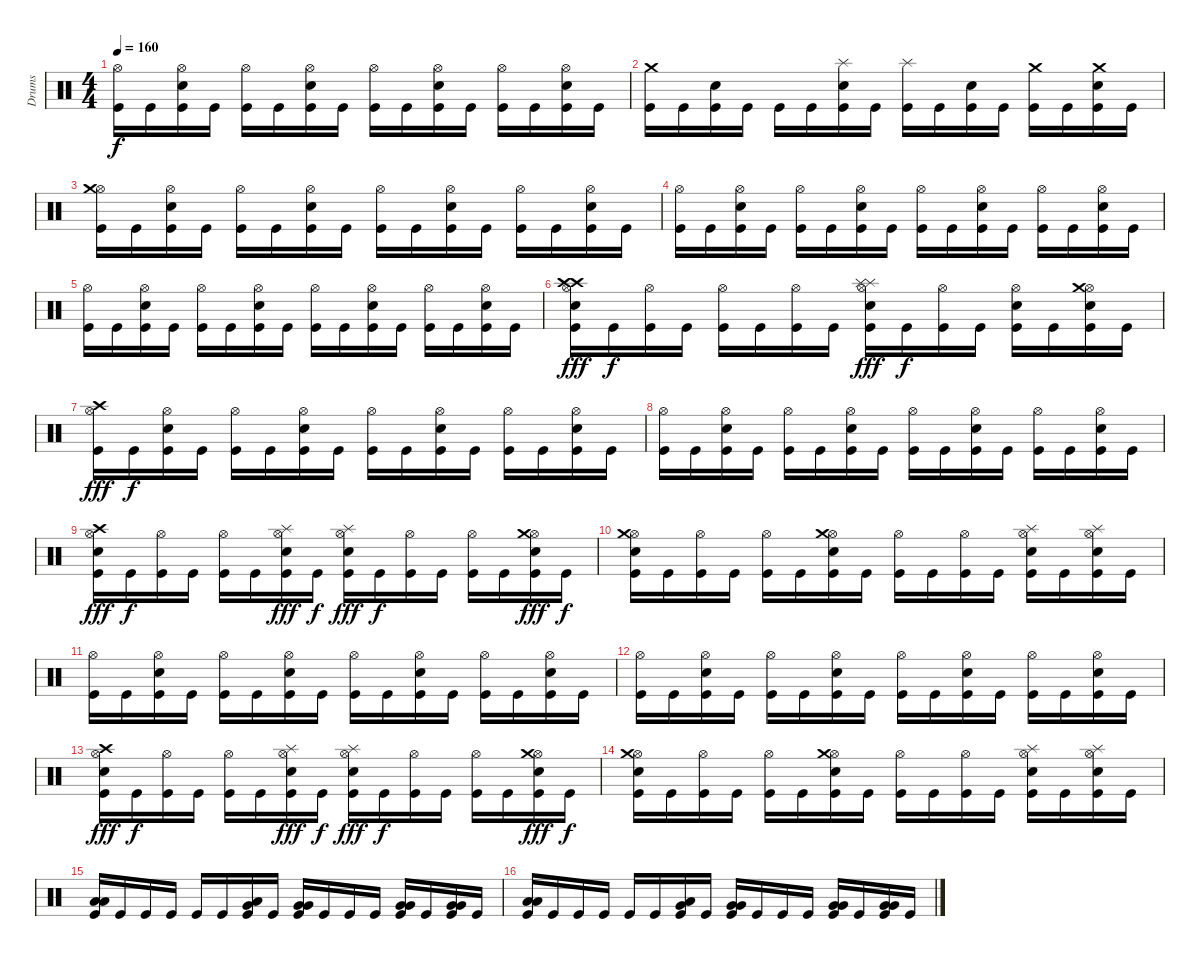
\track ("Drums" "Drums") {instrument percussion}
\staff {score}
\articulation defaults
\ts (4 4)
\tempo 160
\clef neutral
\ks c
("Kick (hit)" "Hi-Hat (open)").16{dy f} "Kick (hit)".16 ("Electric Snare (hit)" "Kick (hit)" "Hi-Hat (open)").16 "Kick (hit)".16 ("Kick (hit)" "Hi-Hat (open)").16 "Kick (hit)".16 ("Electric Snare (hit)" "Kick (hit)" "Hi-Hat (open)").16 "Kick (hit)".16 ("Kick (hit)" "Hi-Hat (open)").16 "Kick (hit)".16 ("Electric Snare (hit)" "Kick (hit)" "Hi-Hat (open)").16 "Kick (hit)".16 ("Kick (hit)" "Hi-Hat (open)").16 "Kick (hit)".16 ("Electric Snare (hit)" "Kick (hit)" "Hi-Hat (open)").16 "Kick (hit)".16 |
("Kick (hit)" "Crash medium (hit)").16 "Kick (hit)".16 ("Electric Snare (hit)" "Kick (hit)").16 "Kick (hit)".16 "Kick (hit)".16 "Kick (hit)".16 ("Electric Snare (hit)" "Kick (hit)" "Splash (hit)").16 "Kick (hit)".16 ("Kick (hit)" "Splash (hit)").16 "Kick (hit)".16 ("Electric Snare (hit)" "Kick (hit)").16 "Kick (hit)".16 ("Kick (hit)" "Crash medium (hit)").16 "Kick (hit)".16 ("Electric Snare (hit)" "Kick (hit)" "Crash medium (hit)").16 "Kick (hit)".16 |
("Kick (hit)" "Hi-Hat (open)" "Crash medium (hit)").16 "Kick (hit)".16 ("Electric Snare (hit)" "Kick (hit)" "Hi-Hat (open)").16 "Kick (hit)".16 ("Kick (hit)" "Hi-Hat (open)").16 "Kick (hit)".16 ("Electric Snare (hit)" "Kick (hit)" "Hi-Hat (open)").16 "Kick (hit)".16 ("Kick (hit)" "Hi-Hat (open)").16 "Kick (hit)".16 ("Electric Snare (hit)" "Kick (hit)" "Hi-Hat (open)").16 "Kick (hit)".16 ("Kick (hit)" "Hi-Hat (open)").16 "Kick (hit)".16 ("Electric Snare (hit)" "Kick (hit)" "Hi-Hat (open)").16 "Kick (hit)".16 |
("Kick (hit)" "Hi-Hat (open)").16 "Kick (hit)".16 ("Electric Snare (hit)" "Kick (hit)" "Hi-Hat (open)").16 "Kick (hit)".16 ("Kick (hit)" "Hi-Hat (open)").16 "Kick (hit)".16 ("Electric Snare (hit)" "Kick (hit)" "Hi-Hat (open)").16 "Kick (hit)".16 ("Kick (hit)" "Hi-Hat (open)").16 "Kick (hit)".16 ("Electric Snare (hit)" "Kick (hit)" "Hi-Hat (open)").16 "Kick (hit)".16 ("Kick (hit)" "Hi-Hat (open)").16 "Kick (hit)".16 ("Electric Snare (hit)" "Kick (hit)" "Hi-Hat (open)").16 "Kick (hit)".16 |
("Kick (hit)" "Hi-Hat (open)").16 "Kick (hit)".16 ("Electric Snare (hit)" "Kick (hit)" "Hi-Hat (open)").16 "Kick (hit)".16 ("Kick (hit)" "Hi-Hat (open)").16 "Kick (hit)".16 ("Electric Snare (hit)" "Kick (hit)" "Hi-Hat (open)").16 "Kick (hit)".16 ("Kick (hit)" "Hi-Hat (open)").16 "Kick (hit)".16 ("Electric Snare (hit)" "Kick (hit)" "Hi-Hat (open)").16 "Kick (hit)".16 ("Kick (hit)" "Hi-Hat (open)").16 "Kick (hit)".16 ("Electric Snare (hit)" "Kick (hit)" "Hi-Hat (open)").16 "Kick (hit)".16 |
("Electric Snare (hit)" "Kick (hit)" "Hi-Hat (open)" "Crash high (hit)" "Crash high (hit)").16{dy fff} "Kick (hit)".16{dy f} ("Kick (hit)" "Hi-Hat (open)").16 "Kick (hit)".16 ("Kick (hit)" "Hi-Hat (open)").16 "Kick (hit)".16 ("Kick (hit)" "Hi-Hat (open)").16 "Kick (hit)".16 ("Electric Snare (hit)" "Kick (hit)" "Hi-Hat (open)" "Splash (hit)" "Splash (hit)").16{dy fff} "Kick (hit)".16{dy f} ("Kick (hit)" "Hi-Hat (open)").16 "Kick (hit)".16 ("Electric Snare (hit)" "Kick (hit)" "Hi-Hat (open)").16 "Kick (hit)".16 ("Electric Snare (hit)" "Kick (hit)" "Hi-Hat (open)" "Crash medium (hit)").16 "Kick (hit)".16 |
("Kick (hit)" "Hi-Hat (open)" "Crash high (hit)").16{dy fff} "Kick (hit)".16{dy f} ("Electric Snare (hit)" "Kick (hit)" "Hi-Hat (open)").16 "Kick (hit)".16 ("Kick (hit)" "Hi-Hat (open)").16 "Kick (hit)".16 ("Electric Snare (hit)" "Kick (hit)" "Hi-Hat (open)").16 "Kick (hit)".16 ("Kick (hit)" "Hi-Hat (open)").16 "Kick (hit)".16 ("Electric Snare (hit)" "Kick (hit)" "Hi-Hat (open)").16 "Kick (hit)".16 ("Kick (hit)" "Hi-Hat (open)").16 "Kick (hit)".16 ("Electric Snare (hit)" "Kick (hit)" "Hi-Hat (open)").16 "Kick (hit)".16 |
("Kick (hit)" "Hi-Hat (open)").16 "Kick (hit)".16 ("Electric Snare (hit)" "Kick (hit)" "Hi-Hat (open)").16 "Kick (hit)".16 ("Kick (hit)" "Hi-Hat (open)").16 "Kick (hit)".16 ("Electric Snare (hit)" "Kick (hit)" "Hi-Hat (open)").16 "Kick (hit)".16 ("Kick (hit)" "Hi-Hat (open)").16 "Kick (hit)".16 ("Electric Snare (hit)" "Kick (hit)" "Hi-Hat (open)").16 "Kick (hit)".16 ("Kick (hit)" "Hi-Hat (open)").16 "Kick (hit)".16 ("Electric Snare (hit)" "Kick (hit)" "Hi-Hat (open)").16 "Kick (hit)".16 |
("Electric Snare (hit)" "Kick (hit)" "Hi-Hat (open)" "Crash high (hit)").16{dy fff} "Kick (hit)".16{dy f} ("Kick (hit)" "Hi-Hat (open)").16 "Kick (hit)".16 ("Kick (hit)" "Hi-Hat (open)").16 "Kick (hit)".16 ("Electric Snare (hit)" "Kick (hit)" "Hi-Hat (open)" "Splash (hit)").16{dy fff} "Kick (hit)".16{dy f} ("Electric Snare (hit)" "Kick (hit)" "Hi-Hat (open)" "Splash (hit)").16{dy fff} "Kick (hit)".16{dy f} ("Kick (hit)" "Hi-Hat (open)").16 "Kick (hit)".16 ("Kick (hit)" "Hi-Hat (open)").16 "Kick (hit)".16 ("Electric Snare (hit)" "Kick (hit)" "Hi-Hat (open)" "Crash medium (hit)").16{dy fff} "Kick (hit)".16{dy f} |
("Electric Snare (hit)" "Kick (hit)" "Hi-Hat (open)" "Crash medium (hit)").16 "Kick (hit)".16 ("Kick (hit)" "Hi-Hat (open)").16 "Kick (hit)".16 ("Kick (hit)" "Hi-Hat (open)").16 "Kick (hit)".16 ("Electric Snare (hit)" "Kick (hit)" "Hi-Hat (open)" "Crash medium (hit)").16 "Kick (hit)".16 ("Kick (hit)" "Hi-Hat (open)").16 "Kick (hit)".16 ("Kick (hit)" "Hi-Hat (open)").16 "Kick (hit)".16 ("Electric Snare (hit)" "Kick (hit)" "Hi-Hat (open)" "Splash (hit)").16 "Kick (hit)".16 ("Electric Snare (hit)" "Kick (hit)" "Hi-Hat (open)" "Splash (hit)").16 "Kick (hit)".16 |
("Kick (hit)" "Hi-Hat (open)").16 "Kick (hit)".16 ("Electric Snare (hit)" "Kick (hit)" "Hi-Hat (open)").16 "Kick (hit)".16 ("Kick (hit)" "Hi-Hat (open)").16 "Kick (hit)".16 ("Electric Snare (hit)" "Kick (hit)" "Hi-Hat (open)").16 "Kick (hit)".16 ("Kick (hit)" "Hi-Hat (open)").16 "Kick (hit)".16 ("Electric Snare (hit)" "Kick (hit)" "Hi-Hat (open)").16 "Kick (hit)".16 ("Kick (hit)" "Hi-Hat (open)").16 "Kick (hit)".16 ("Electric Snare (hit)" "Kick (hit)" "Hi-Hat (open)").16 "Kick (hit)".16 |
("Kick (hit)" "Hi-Hat (open)").16 "Kick (hit)".16 ("Electric Snare (hit)" "Kick (hit)" "Hi-Hat (open)").16 "Kick (hit)".16 ("Kick (hit)" "Hi-Hat (open)").16 "Kick (hit)".16 ("Electric Snare (hit)" "Kick (hit)" "Hi-Hat (open)").16 "Kick (hit)".16 ("Kick (hit)" "Hi-Hat (open)").16 "Kick (hit)".16 ("Electric Snare (hit)" "Kick (hit)" "Hi-Hat (open)").16 "Kick (hit)".16 ("Kick (hit)" "Hi-Hat (open)").16 "Kick (hit)".16 ("Electric Snare (hit)" "Kick (hit)" "Hi-Hat (open)").16 "Kick (hit)".16 |
("Electric Snare (hit)" "Kick (hit)" "Hi-Hat (open)" "Crash high (hit)").16{dy fff} "Kick (hit)".16{dy f} ("Kick (hit)" "Hi-Hat (open)").16 "Kick (hit)".16 ("Kick (hit)" "Hi-Hat (open)").16 "Kick (hit)".16 ("Electric Snare (hit)" "Kick (hit)" "Hi-Hat (open)" "Splash (hit)").16{dy fff} "Kick (hit)".16{dy f} ("Electric Snare (hit)" "Kick (hit)" "Hi-Hat (open)" "Splash (hit)").16{dy fff} "Kick (hit)".16{dy f} ("Kick (hit)" "Hi-Hat (open)").16 "Kick (hit)".16 ("Kick (hit)" "Hi-Hat (open)").16 "Kick (hit)".16 ("Electric Snare (hit)" "Kick (hit)" "Hi-Hat (open)" "Crash medium (hit)").16{dy fff} "Kick (hit)".16{dy f} |
("Electric Snare (hit)" "Kick (hit)" "Hi-Hat (open)" "Crash medium (hit)").16 "Kick (hit)".16 ("Kick (hit)" "Hi-Hat (open)").16 "Kick (hit)".16 ("Kick (hit)" "Hi-Hat (open)").16 "Kick (hit)".16 ("Electric Snare (hit)" "Kick (hit)" "Hi-Hat (open)" "Crash medium (hit)").16 "Kick (hit)".16 ("Kick (hit)" "Hi-Hat (open)").16 "Kick (hit)".16 ("Kick (hit)" "Hi-Hat (open)").16 "Kick (hit)".16 ("Electric Snare (hit)" "Kick (hit)" "Hi-Hat (open)" "Splash (hit)").16 "Kick (hit)".16 ("Electric Snare (hit)" "Kick (hit)" "Hi-Hat (open)" "Splash (hit)").16 "Kick (hit)".16 |
("Low Floor Tom (hit)" "Kick (hit)" "Low Floor Tom (hit)").16 "Kick (hit)".16 "Kick (hit)".16 "Kick (hit)".16 "Kick (hit)".16 "Kick (hit)".16 ("Low Floor Tom (hit)" "Kick (hit)" "Very Low Tom (hit)").16 "Kick (hit)".16 ("Very Low Tom (hit)" "Kick (hit)" "Very Low Tom (hit)").16 "Kick (hit)".16 "Kick (hit)".16 "Kick (hit)".16 ("Very Low Tom (hit)" "Kick (hit)" "Very Low Tom (hit)").16 "Kick (hit)".16 ("Very Low Tom (hit)" "Kick (hit)" "Very Low Tom (hit)").16 "Kick (hit)".16 |
("Low Floor Tom (hit)" "Kick (hit)" "Low Floor Tom (hit)").16 "Kick (hit)".16 "Kick (hit)".16 "Kick (hit)".16 "Kick (hit)".16 "Kick (hit)".16 ("Low Floor Tom (hit)" "Kick (hit)" "Very Low Tom (hit)").16 "Kick (hit)".16 ("Very Low Tom (hit)" "Kick (hit)" "Very Low Tom (hit)").16 "Kick (hit)".16 "Kick (hit)".16 "Kick (hit)".16 ("Very Low Tom (hit)" "Kick (hit)" "Very Low Tom (hit)").16 "Kick (hit)".16 ("Very Low Tom (hit)" "Kick (hit)" "Very Low Tom (hit)").16 "Kick (hit)".16
